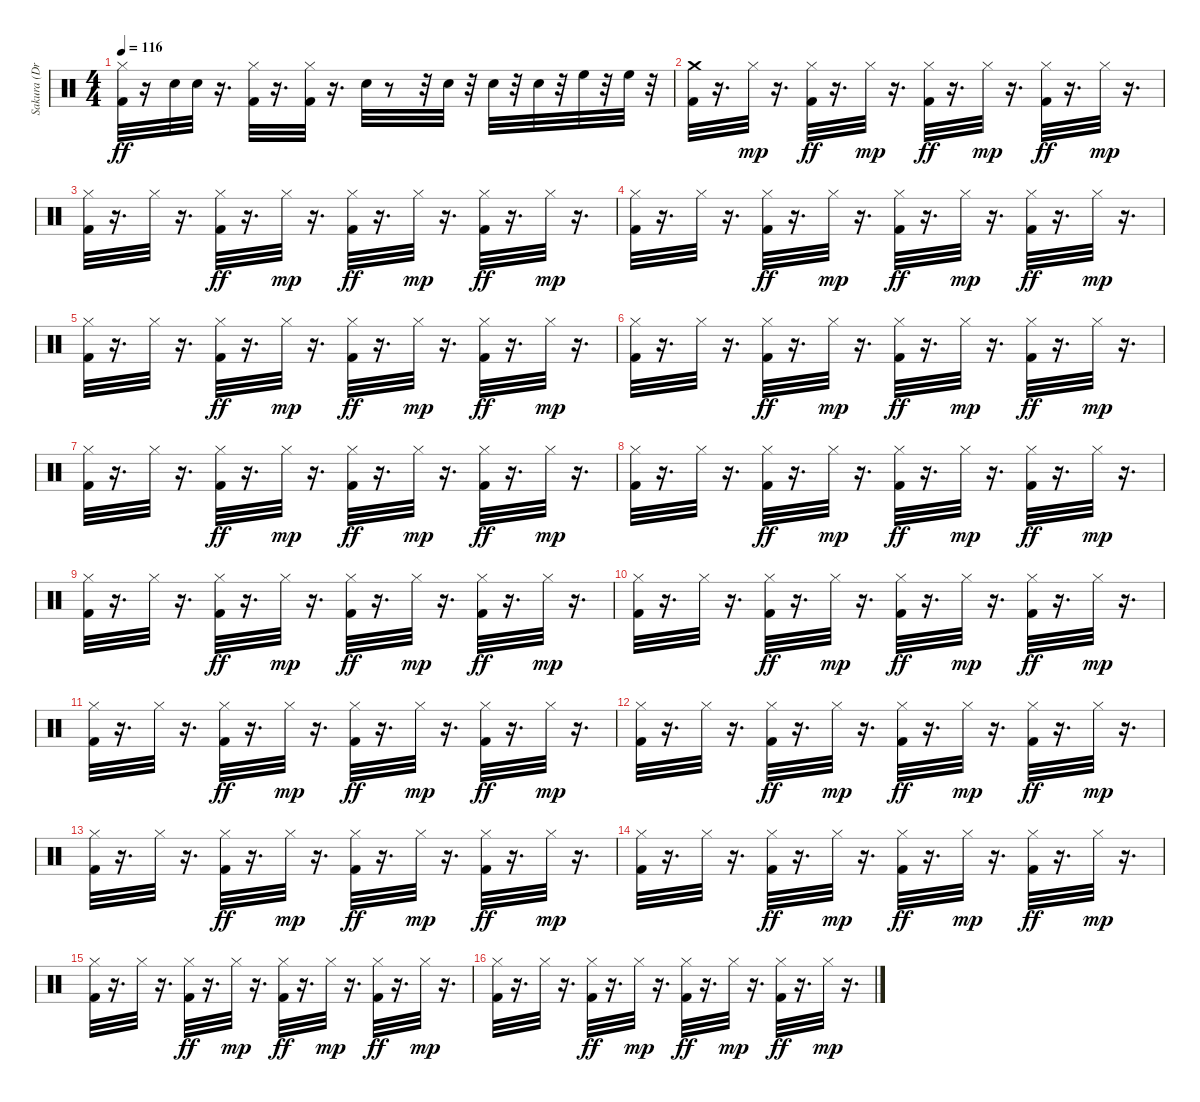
\track ("Sakura (Drums)" "Sakura (Dr") {instrument percussion}
\staff {score}
\articulation defaults
\ts (4 4)
\tempo 116
\clef neutral
\ks c
("Hi-Hat (closed)" "Kick (hit) 2").32{dy ff} r.16 "Electric Snare (hit)".32 "Electric Snare (hit)".32 r.16{d} ("Hi-Hat (closed)" "Kick (hit) 2").32 r.16{d} ("Hi-Hat (closed)" "Kick (hit) 2").32 r.16{d} "Electric Snare (hit)".32 r.8 r.32 "Electric Snare (hit)".32 r.32 "Electric Snare (hit)".32 r.32 "Electric Snare (hit)".32 r.32 "High Floor Tom (hit)".32 r.32 "High Floor Tom (hit)".32 r.32 |
("Kick (hit) 2" "Crash medium (hit)").32 r.16{d} "Hi-Hat (closed)".32{dy mp} r.16{d} ("Hi-Hat (closed)" "Kick (hit) 2").32{dy ff} r.16{d} "Hi-Hat (closed)".32{dy mp} r.16{d} ("Hi-Hat (closed)" "Kick (hit) 2").32{dy ff} r.16{d} "Hi-Hat (closed)".32{dy mp} r.16{d} ("Hi-Hat (closed)" "Kick (hit) 2").32{dy ff} r.16{d} "Hi-Hat (closed)".32{dy mp} r.16{d} |
("Kick (hit) 2" "Hi-Hat (closed)").32 r.16{d} "Hi-Hat (closed)".32 r.16{d} ("Hi-Hat (closed)" "Kick (hit) 2").32{dy ff} r.16{d} "Hi-Hat (closed)".32{dy mp} r.16{d} ("Hi-Hat (closed)" "Kick (hit) 2").32{dy ff} r.16{d} "Hi-Hat (closed)".32{dy mp} r.16{d} ("Hi-Hat (closed)" "Kick (hit) 2").32{dy ff} r.16{d} "Hi-Hat (closed)".32{dy mp} r.16{d} |
("Kick (hit) 2" "Hi-Hat (closed)").32 r.16{d} "Hi-Hat (closed)".32 r.16{d} ("Hi-Hat (closed)" "Kick (hit) 2").32{dy ff} r.16{d} "Hi-Hat (closed)".32{dy mp} r.16{d} ("Hi-Hat (closed)" "Kick (hit) 2").32{dy ff} r.16{d} "Hi-Hat (closed)".32{dy mp} r.16{d} ("Hi-Hat (closed)" "Kick (hit) 2").32{dy ff} r.16{d} "Hi-Hat (closed)".32{dy mp} r.16{d} |
("Kick (hit) 2" "Hi-Hat (closed)").32 r.16{d} "Hi-Hat (closed)".32 r.16{d} ("Hi-Hat (closed)" "Kick (hit) 2").32{dy ff} r.16{d} "Hi-Hat (closed)".32{dy mp} r.16{d} ("Hi-Hat (closed)" "Kick (hit) 2").32{dy ff} r.16{d} "Hi-Hat (closed)".32{dy mp} r.16{d} ("Hi-Hat (closed)" "Kick (hit) 2").32{dy ff} r.16{d} "Hi-Hat (closed)".32{dy mp} r.16{d} |
("Kick (hit) 2" "Hi-Hat (closed)").32 r.16{d} "Hi-Hat (closed)".32 r.16{d} ("Hi-Hat (closed)" "Kick (hit) 2").32{dy ff} r.16{d} "Hi-Hat (closed)".32{dy mp} r.16{d} ("Hi-Hat (closed)" "Kick (hit) 2").32{dy ff} r.16{d} "Hi-Hat (closed)".32{dy mp} r.16{d} ("Hi-Hat (closed)" "Kick (hit) 2").32{dy ff} r.16{d} "Hi-Hat (closed)".32{dy mp} r.16{d} |
("Kick (hit) 2" "Hi-Hat (closed)").32 r.16{d} "Hi-Hat (closed)".32 r.16{d} ("Hi-Hat (closed)" "Kick (hit) 2").32{dy ff} r.16{d} "Hi-Hat (closed)".32{dy mp} r.16{d} ("Hi-Hat (closed)" "Kick (hit) 2").32{dy ff} r.16{d} "Hi-Hat (closed)".32{dy mp} r.16{d} ("Hi-Hat (closed)" "Kick (hit) 2").32{dy ff} r.16{d} "Hi-Hat (closed)".32{dy mp} r.16{d} |
("Kick (hit) 2" "Hi-Hat (closed)").32 r.16{d} "Hi-Hat (closed)".32 r.16{d} ("Hi-Hat (closed)" "Kick (hit) 2").32{dy ff} r.16{d} "Hi-Hat (closed)".32{dy mp} r.16{d} ("Hi-Hat (closed)" "Kick (hit) 2").32{dy ff} r.16{d} "Hi-Hat (closed)".32{dy mp} r.16{d} ("Hi-Hat (closed)" "Kick (hit) 2").32{dy ff} r.16{d} "Hi-Hat (closed)".32{dy mp} r.16{d} |
("Kick (hit) 2" "Hi-Hat (closed)").32 r.16{d} "Hi-Hat (closed)".32 r.16{d} ("Hi-Hat (closed)" "Kick (hit) 2").32{dy ff} r.16{d} "Hi-Hat (closed)".32{dy mp} r.16{d} ("Hi-Hat (closed)" "Kick (hit) 2").32{dy ff} r.16{d} "Hi-Hat (closed)".32{dy mp} r.16{d} ("Hi-Hat (closed)" "Kick (hit) 2").32{dy ff} r.16{d} "Hi-Hat (closed)".32{dy mp} r.16{d} |
("Kick (hit) 2" "Hi-Hat (closed)").32 r.16{d} "Hi-Hat (closed)".32 r.16{d} ("Hi-Hat (closed)" "Kick (hit) 2").32{dy ff} r.16{d} "Hi-Hat (closed)".32{dy mp} r.16{d} ("Hi-Hat (closed)" "Kick (hit) 2").32{dy ff} r.16{d} "Hi-Hat (closed)".32{dy mp} r.16{d} ("Hi-Hat (closed)" "Kick (hit) 2").32{dy ff} r.16{d} "Hi-Hat (closed)".32{dy mp} r.16{d} |
("Kick (hit) 2" "Hi-Hat (closed)").32 r.16{d} "Hi-Hat (closed)".32 r.16{d} ("Hi-Hat (closed)" "Kick (hit) 2").32{dy ff} r.16{d} "Hi-Hat (closed)".32{dy mp} r.16{d} ("Hi-Hat (closed)" "Kick (hit) 2").32{dy ff} r.16{d} "Hi-Hat (closed)".32{dy mp} r.16{d} ("Hi-Hat (closed)" "Kick (hit) 2").32{dy ff} r.16{d} "Hi-Hat (closed)".32{dy mp} r.16{d} |
("Kick (hit) 2" "Hi-Hat (closed)").32 r.16{d} "Hi-Hat (closed)".32 r.16{d} ("Hi-Hat (closed)" "Kick (hit) 2").32{dy ff} r.16{d} "Hi-Hat (closed)".32{dy mp} r.16{d} ("Hi-Hat (closed)" "Kick (hit) 2").32{dy ff} r.16{d} "Hi-Hat (closed)".32{dy mp} r.16{d} ("Hi-Hat (closed)" "Kick (hit) 2").32{dy ff} r.16{d} "Hi-Hat (closed)".32{dy mp} r.16{d} |
("Kick (hit) 2" "Hi-Hat (closed)").32 r.16{d} "Hi-Hat (closed)".32 r.16{d} ("Hi-Hat (closed)" "Kick (hit) 2").32{dy ff} r.16{d} "Hi-Hat (closed)".32{dy mp} r.16{d} ("Hi-Hat (closed)" "Kick (hit) 2").32{dy ff} r.16{d} "Hi-Hat (closed)".32{dy mp} r.16{d} ("Hi-Hat (closed)" "Kick (hit) 2").32{dy ff} r.16{d} "Hi-Hat (closed)".32{dy mp} r.16{d} |
("Kick (hit) 2" "Hi-Hat (closed)").32 r.16{d} "Hi-Hat (closed)".32 r.16{d} ("Hi-Hat (closed)" "Kick (hit) 2").32{dy ff} r.16{d} "Hi-Hat (closed)".32{dy mp} r.16{d} ("Hi-Hat (closed)" "Kick (hit) 2").32{dy ff} r.16{d} "Hi-Hat (closed)".32{dy mp} r.16{d} ("Hi-Hat (closed)" "Kick (hit) 2").32{dy ff} r.16{d} "Hi-Hat (closed)".32{dy mp} r.16{d} |
("Kick (hit) 2" "Hi-Hat (closed)").32 r.16{d} "Hi-Hat (closed)".32 r.16{d} ("Hi-Hat (closed)" "Kick (hit) 2").32{dy ff} r.16{d} "Hi-Hat (closed)".32{dy mp} r.16{d} ("Hi-Hat (closed)" "Kick (hit) 2").32{dy ff} r.16{d} "Hi-Hat (closed)".32{dy mp} r.16{d} ("Hi-Hat (closed)" "Kick (hit) 2").32{dy ff} r.16{d} "Hi-Hat (closed)".32{dy mp} r.16{d} |
("Kick (hit) 2" "Hi-Hat (closed)").32 r.16{d} "Hi-Hat (closed)".32 r.16{d} ("Hi-Hat (closed)" "Kick (hit) 2").32{dy ff} r.16{d} "Hi-Hat (closed)".32{dy mp} r.16{d} ("Hi-Hat (closed)" "Kick (hit) 2").32{dy ff} r.16{d} "Hi-Hat (closed)".32{dy mp} r.16{d} ("Hi-Hat (closed)" "Kick (hit) 2").32{dy ff} r.16{d} "Hi-Hat (closed)".32{dy mp} r.16{d}
